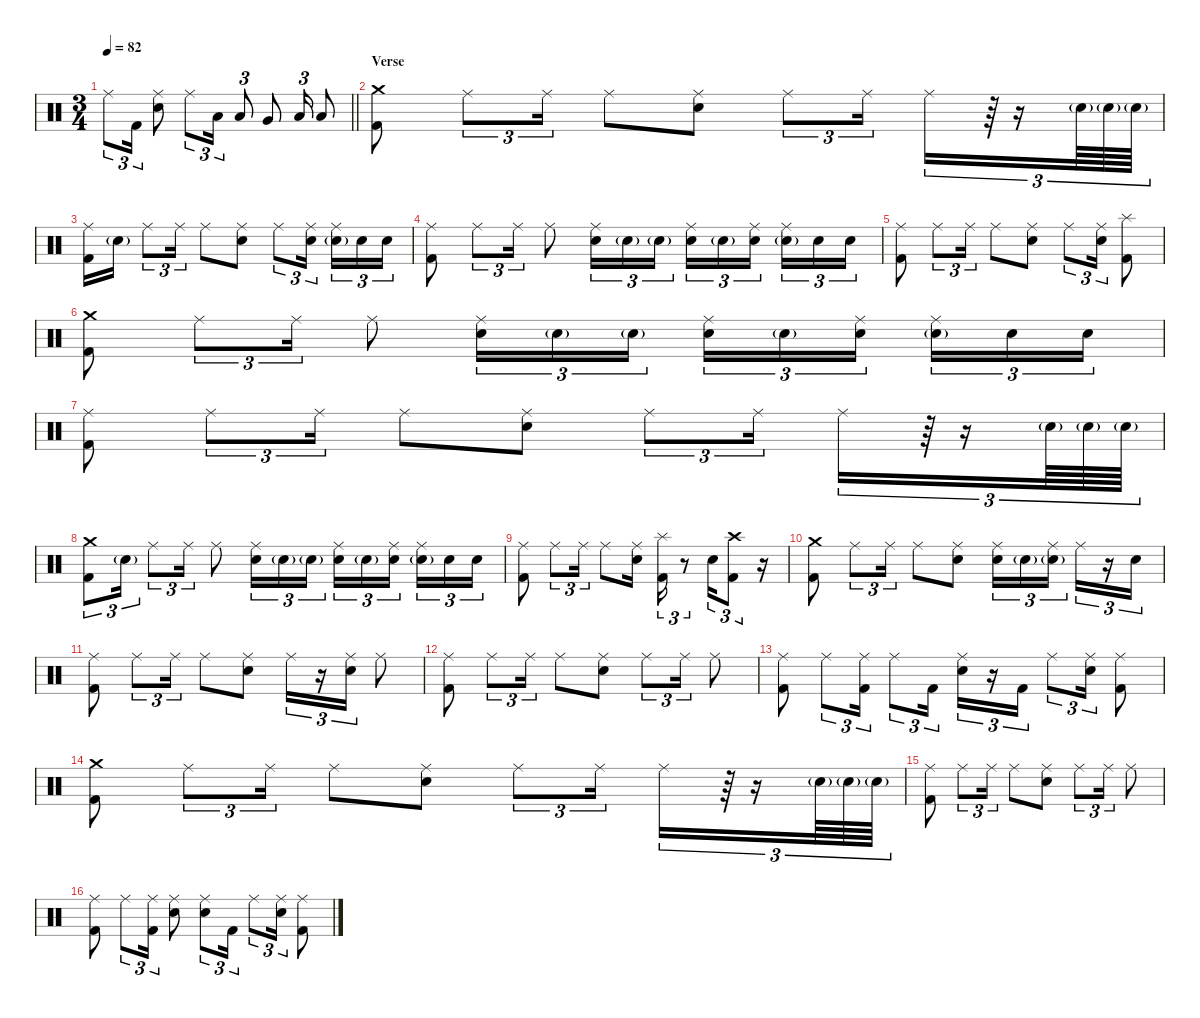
\defaultSystemsLayout 4
\hideDynamics
\bracketExtendMode nobrackets
\singleTrackTrackNamePolicy hidden
\multiTrackTrackNamePolicy hidden
\firstSystemTrackNameMode fullname
\otherSystemsTrackNameOrientation horizontal
\track ("Drums" "drm.") {defaultSystemsLayout 4 instrument percussion}
\staff {score}
\articulation defaults
\ts (3 4)
\tempo 82
\clef neutral
\barLineRight lightlight
\ks c "Ride (middle)".8{tu (3 2) dy f beam Down} "Kick (hit) 2".16{tu (3 2) beam Down}
("Ride (middle)" "Snare (hit) 2").8{beam Down} "Ride (middle)".8{tu (3 2) beam Down} "Low Tom (hit)".16{tu (3 2) dy fff beam Down} "Low Tom (hit)".8{tu (3 2) beam Up} "Very Low Tom (hit)".8{beam Up} "Low Floor Tom (hit)".16{tu (3 2) beam Up} "Low Floor Tom (hit)".8{beam Up} |
\section ("" "Verse")
("Crash medium (hit)" "Kick (hit) 2").8{dy f beam Down} "Ride (middle)".8{tu (3 2) beam Down} "Ride (middle)".16{tu (3 2) beam Down} "Ride (middle)".8{beam Down} ("Ride (middle)" "Snare (hit) 2").8{beam Down} "Ride (middle)".8{tu (3 2) beam Down} "Ride (middle)".16{tu (3 2) beam Down} "Ride (middle)".16{tu (3 2) beam Down} r.64{tu (3 2) beam Down} r.16{tu (3 2) beam Down} "Snare (hit) 2"{g}.64{tu (3 2) dy mf beam Down} "Snare (hit) 2"{g}.64{tu (3 2) beam Down} "Snare (hit) 2"{g}.64{tu (3 2) beam Down} |
("Ride (middle)" "Kick (hit) 2").16{dy f beam Down} "Snare (hit) 2"{g}.16{dy mf beam Down} "Ride (middle)".8{tu (3 2) dy f beam Down} "Ride (middle)".16{tu (3 2) beam Down} "Ride (middle)".8{beam Down} ("Ride (middle)" "Snare (hit) 2").8{beam Down} "Ride (middle)".8{tu (3 2) beam Down} ("Ride (middle)" "Snare (hit) 2").16{tu (3 2) beam Down} ("Ride (middle)" "Snare (hit) 2"{g}).16{tu (3 2) beam Down} "Snare (hit) 2".16{tu (3 2) beam Down} "Snare (hit) 2".16{tu (3 2) beam Down} |
("Ride (middle)" "Kick (hit) 2").8{beam Down} "Ride (middle)".8{tu (3 2) beam Down} "Ride (middle)".16{tu (3 2) beam Down} "Ride (middle)".8{beam Down} ("Ride (middle)" "Snare (hit) 2").16{tu (3 2) beam Down} "Snare (hit) 2"{g}.16{tu (3 2) dy p beam Down} "Snare (hit) 2"{g}.16{tu (3 2) beam Down} ("Ride (middle)" "Snare (hit) 2").16{tu (3 2) dy f beam Down} "Snare (hit) 2"{g}.16{tu (3 2) dy p beam Down} ("Ride (middle)" "Snare (hit) 2").16{tu (3 2) dy f beam Down} ("Ride (middle)" "Snare (hit) 2"{g}).16{tu (3 2) dy p beam Down} "Snare (hit) 2".16{tu (3 2) dy mp beam Down} "Snare (hit) 2".16{tu (3 2) beam Down} |
("Ride (middle)" "Kick (hit) 2").8{dy f beam Down} "Ride (middle)".8{tu (3 2) beam Down} "Ride (middle)".16{tu (3 2) beam Down} "Ride (middle)".8{beam Down} ("Ride (middle)" "Snare (hit) 2").8{beam Down} "Ride (middle)".8{tu (3 2) beam Down} ("Ride (middle)" "Snare (hit) 2").16{tu (3 2) beam Down} ("Splash (hit)" "Kick (hit) 2").8{beam Down} |
("Crash medium (hit)" "Kick (hit) 2").8{beam Down} "Ride (middle)".8{tu (3 2) beam Down} "Ride (middle)".16{tu (3 2) beam Down} "Ride (middle)".8{beam Down} ("Ride (middle)" "Snare (hit) 2").16{tu (3 2) beam Down} "Snare (hit) 2"{g}.16{tu (3 2) dy p beam Down} "Snare (hit) 2"{g}.16{tu (3 2) beam Down} ("Ride (middle)" "Snare (hit) 2").16{tu (3 2) dy f beam Down} "Snare (hit) 2"{g}.16{tu (3 2) dy p beam Down} ("Ride (middle)" "Snare (hit) 2").16{tu (3 2) dy f beam Down} ("Ride (middle)" "Snare (hit) 2"{g}).16{tu (3 2) beam Down} "Snare (hit) 2".16{tu (3 2) dy mp beam Down} "Snare (hit) 2".16{tu (3 2) beam Down} |
("Ride (middle)" "Kick (hit) 2").8{dy f beam Down} "Ride (middle)".8{tu (3 2) beam Down} "Ride (middle)".16{tu (3 2) beam Down} "Ride (middle)".8{beam Down} ("Ride (middle)" "Snare (hit) 2").8{beam Down} "Ride (middle)".8{tu (3 2) beam Down} "Ride (middle)".16{tu (3 2) beam Down} "Ride (middle)".16{tu (3 2) beam Down} r.64{tu (3 2) beam Down} r.16{tu (3 2) beam Down} "Snare (hit) 2"{g}.64{tu (3 2) dy mf beam Down} "Snare (hit) 2"{g}.64{tu (3 2) beam Down} "Snare (hit) 2"{g}.64{tu (3 2) beam Down} |
("Crash medium (hit)" "Kick (hit) 2").8{tu (3 2) dy f beam Down} "Snare (hit) 2"{g}.16{tu (3 2) dy mf beam Down} "Ride (middle)".8{tu (3 2) dy f beam Down} "Ride (middle)".16{tu (3 2) beam Down} "Ride (middle)".8{beam Down} ("Ride (middle)" "Snare (hit) 2").16{tu (3 2) beam Down} "Snare (hit) 2"{g}.16{tu (3 2) dy p beam Down} "Snare (hit) 2"{g}.16{tu (3 2) beam Down} ("Ride (middle)" "Snare (hit) 2").16{tu (3 2) dy f beam Down} "Snare (hit) 2"{g}.16{tu (3 2) dy p beam Down} ("Ride (middle)" "Snare (hit) 2").16{tu (3 2) dy f beam Down} ("Ride (middle)" "Snare (hit) 2"{g}).16{tu (3 2) beam Down} "Snare (hit) 2".16{tu (3 2) dy mp beam Down} "Snare (hit) 2".16{tu (3 2) beam Down} |
("Ride (middle)" "Kick (hit) 2").8{dy f beam Down} "Ride (middle)".8{tu (3 2) beam Down} "Ride (middle)".16{tu (3 2) beam Down} "Ride (middle)".8{beam Down} ("Ride (middle)" "Snare (hit) 2").16{beam Down} ("Splash (hit)" "Kick (hit) 2").16{tu (3 2) beam Down} r.8{tu (3 2) beam Down} "Snare (hit) 2".16{tu (3 2) beam Down} ("Crash high (hit)" "Kick (hit) 2").8{tu (3 2) beam Down} r.16{beam Down} |
("Crash medium (hit)" "Kick (hit) 2").8{beam Down} "Ride (middle)".8{tu (3 2) beam Down} "Ride (middle)".16{tu (3 2) beam Down} "Ride (middle)".8{beam Down} ("Ride (middle)" "Snare (hit) 2").8{beam Down} ("Ride (middle)" "Snare (hit) 2").16{tu (3 2) beam Down} "Snare (hit) 2"{g}.16{tu (3 2) dy mf beam Down} ("Ride (middle)" "Snare (hit) 2"{g}).16{tu (3 2) dy f beam Down} "Ride (middle)".16{tu (3 2) beam Down} r.16{tu (3 2) beam Down} "Snare (hit) 2".16{tu (3 2) dy mp beam Down} |
("Ride (middle)" "Kick (hit) 2").8{dy f beam Down} "Ride (middle)".8{tu (3 2) beam Down} "Ride (middle)".16{tu (3 2) beam Down} "Ride (middle)".8{beam Down} ("Ride (middle)" "Snare (hit) 2").8{beam Down} "Ride (middle)".16{tu (3 2) beam Down} r.16{tu (3 2) beam Down} ("Ride (middle)" "Snare (hit) 2").16{tu (3 2) beam Down} "Ride (middle)".8{beam Down} |
("Ride (middle)" "Kick (hit) 2").8{beam Down} "Ride (middle)".8{tu (3 2) beam Down} "Ride (middle)".16{tu (3 2) beam Down} "Ride (middle)".8{beam Down} ("Ride (middle)" "Snare (hit) 2").8{beam Down} "Ride (middle)".8{tu (3 2) beam Down} "Ride (middle)".16{tu (3 2) beam Down} "Ride (middle)".8{beam Down} |
("Ride (middle)" "Kick (hit) 2").8{beam Down} "Ride (middle)".8{tu (3 2) beam Down} ("Ride (middle)" "Kick (hit) 2").16{tu (3 2) beam Down} "Ride (middle)".8{tu (3 2) beam Down} "Kick (hit) 2".16{tu (3 2) beam Down} ("Ride (middle)" "Snare (hit) 2").16{tu (3 2) beam Down} r.16{tu (3 2) beam Down} "Kick (hit) 2".16{tu (3 2) beam Down} "Ride (middle)".8{tu (3 2) beam Down} ("Ride (middle)" "Snare (hit) 2").16{tu (3 2) beam Down} ("Ride (middle)" "Kick (hit) 2").8{beam Down} |
("Crash medium (hit)" "Kick (hit) 2").8{beam Down} "Ride (middle)".8{tu (3 2) beam Down} "Ride (middle)".16{tu (3 2) beam Down} "Ride (middle)".8{beam Down} ("Ride (middle)" "Snare (hit) 2").8{beam Down} "Ride (middle)".8{tu (3 2) beam Down} "Ride (middle)".16{tu (3 2) beam Down} "Ride (middle)".16{tu (3 2) beam Down} r.64{tu (3 2) beam Down} r.16{tu (3 2) beam Down} "Snare (hit) 2"{g}.64{tu (3 2) dy mf beam Down} "Snare (hit) 2"{g}.64{tu (3 2) beam Down} "Snare (hit) 2"{g}.64{tu (3 2) beam Down} |
("Ride (middle)" "Kick (hit) 2").8{dy f beam Down} "Ride (middle)".8{tu (3 2) beam Down} "Ride (middle)".16{tu (3 2) beam Down} "Ride (middle)".8{beam Down} ("Ride (middle)" "Snare (hit) 2").8{beam Down} "Ride (middle)".8{tu (3 2) beam Down} "Ride (middle)".16{tu (3 2) beam Down} "Ride (middle)".8{beam Down} |
("Ride (middle)" "Kick (hit) 2").8{beam Down} "Ride (middle)".8{tu (3 2) beam Down} ("Ride (middle)" "Kick (hit) 2").16{tu (3 2) beam Down} ("Ride (middle)" "Snare (hit) 2").8{beam Down} ("Ride (middle)" "Snare (hit) 2").8{tu (3 2) beam Down} "Kick (hit) 2".16{tu (3 2) beam Down} "Ride (middle)".8{tu (3 2) beam Down} ("Ride (middle)" "Snare (hit) 2").16{tu (3 2) beam Down} ("Ride (middle)" "Kick (hit) 2").8{beam Down}
